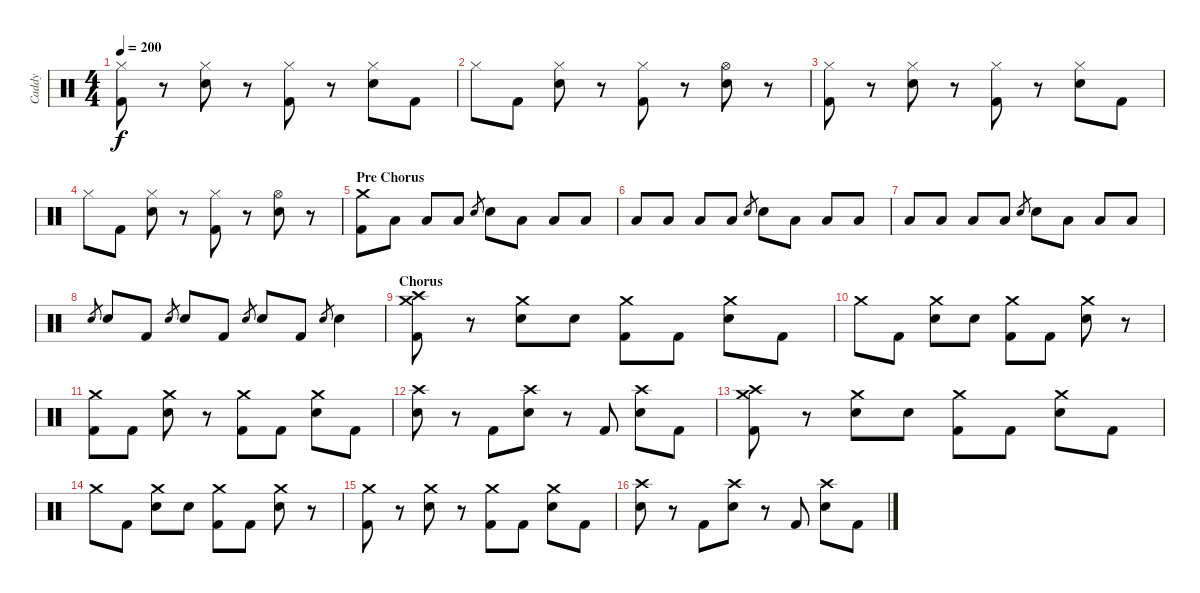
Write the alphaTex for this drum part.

\track ("Caddy" "Caddy") {instrument percussion}
\staff {score}
\articulation defaults
\ts (4 4)
\tempo 200
\clef neutral
\ks c
("Hi-Hat (closed)" "Kick (hit) 2").8{dy f} r.8 ("Hi-Hat (closed)" "Electric Snare (hit)").8 r.8 ("Hi-Hat (closed)" "Kick (hit) 2").8 r.8 ("Hi-Hat (closed)" "Electric Snare (hit)").8 "Kick (hit) 2".8 |
"Hi-Hat (closed)".8 "Kick (hit) 2".8 ("Hi-Hat (closed)" "Electric Snare (hit)").8 r.8 ("Hi-Hat (closed)" "Kick (hit) 2").8 r.8 ("Hi-Hat (open)" "Electric Snare (hit)").8 r.8 |
("Hi-Hat (closed)" "Kick (hit) 2").8 r.8 ("Hi-Hat (closed)" "Electric Snare (hit)").8 r.8 ("Hi-Hat (closed)" "Kick (hit) 2").8 r.8 ("Hi-Hat (closed)" "Electric Snare (hit)").8 "Kick (hit) 2".8 |
"Hi-Hat (closed)".8 "Kick (hit) 2".8 ("Hi-Hat (closed)" "Electric Snare (hit)").8 r.8 ("Hi-Hat (closed)" "Kick (hit) 2").8 r.8 ("Hi-Hat (open)" "Electric Snare (hit)").8 r.8 |
\section ("" "Pre Chorus")
("Crash medium (hit)" "Kick (hit) 2").8 "Low Floor Tom (hit)".8 "Low Tom (hit)".8 "Low Floor Tom (hit)".8 "Electric Snare (hit)".8{gr} "Electric Snare (hit)".8 "Low Floor Tom (hit)".8 "Low Tom (hit)".8 "Low Floor Tom (hit)".8 |
"Low Tom (hit)".8 "Low Floor Tom (hit)".8 "Low Tom (hit)".8 "Low Floor Tom (hit)".8 "Electric Snare (hit)".8{gr} "Electric Snare (hit)".8 "Low Tom (hit)".8 "Low Floor Tom (hit)".8 "Low Tom (hit)".8 |
"Low Tom (hit)".8 "Low Floor Tom (hit)".8 "Low Tom (hit)".8 "Low Floor Tom (hit)".8 "Electric Snare (hit)".8{gr} "Electric Snare (hit)".8 "Low Tom (hit)".8 "Low Floor Tom (hit)".8 "Low Tom (hit)".8 |
"Electric Snare (hit)".8{gr} "Electric Snare (hit)".8 "Kick (hit) 2".8 "Electric Snare (hit)".8{gr} "Electric Snare (hit)".8 "Kick (hit) 2".8 "Electric Snare (hit)".8{gr} "Electric Snare (hit)".8 "Kick (hit) 2".8 "Electric Snare (hit)".8{gr} "Electric Snare (hit)".4 |
\section ("" "Chorus")
("Crash high (hit)" "Crash medium (hit)" "Kick (hit) 2").8 r.8 ("Crash medium (hit)" "Electric Snare (hit)").8 "Electric Snare (hit)".8 ("Crash medium (hit)" "Kick (hit) 2").8 "Kick (hit) 2".8 ("Crash medium (hit)" "Electric Snare (hit)").8 "Kick (hit) 2".8 |
"Crash medium (hit)".8 "Kick (hit) 2".8 ("Crash medium (hit)" "Electric Snare (hit)").8 "Electric Snare (hit)".8 ("Crash medium (hit)" "Kick (hit) 2").8 "Kick (hit) 2".8 ("Crash medium (hit)" "Electric Snare (hit)").8 r.8 |
("Crash medium (hit)" "Kick (hit) 2").8 "Kick (hit) 2".8 ("Crash medium (hit)" "Electric Snare (hit)").8 r.8 ("Crash medium (hit)" "Kick (hit) 2").8 "Kick (hit) 2".8 ("Crash medium (hit)" "Electric Snare (hit)").8 "Kick (hit) 2".8 |
("Crash high (hit)" "Electric Snare (hit)").8 r.8 "Kick (hit) 2".8 ("Crash high (hit)" "Electric Snare (hit)").8 r.8 "Kick (hit) 2".8 ("Crash high (hit)" "Electric Snare (hit)").8 "Kick (hit) 2".8 |
("Crash high (hit)" "Crash medium (hit)" "Kick (hit) 2").8 r.8 ("Crash medium (hit)" "Electric Snare (hit)").8 "Electric Snare (hit)".8 ("Crash medium (hit)" "Kick (hit) 2").8 "Kick (hit) 2".8 ("Crash medium (hit)" "Electric Snare (hit)").8 "Kick (hit) 2".8 |
"Crash medium (hit)".8 "Kick (hit) 2".8 ("Crash medium (hit)" "Electric Snare (hit)").8 "Electric Snare (hit)".8 ("Crash medium (hit)" "Kick (hit) 2").8 "Kick (hit) 2".8 ("Crash medium (hit)" "Electric Snare (hit)").8 r.8 |
("Crash medium (hit)" "Kick (hit) 2").8 r.8 ("Crash medium (hit)" "Electric Snare (hit)").8 r.8 ("Crash medium (hit)" "Kick (hit) 2").8 "Kick (hit) 2".8 ("Crash medium (hit)" "Electric Snare (hit)").8 "Kick (hit) 2".8 |
("Crash high (hit)" "Electric Snare (hit)").8 r.8 "Kick (hit) 2".8 ("Crash high (hit)" "Electric Snare (hit)").8 r.8 "Kick (hit) 2".8 ("Crash high (hit)" "Electric Snare (hit)").8 "Kick (hit) 2".8
